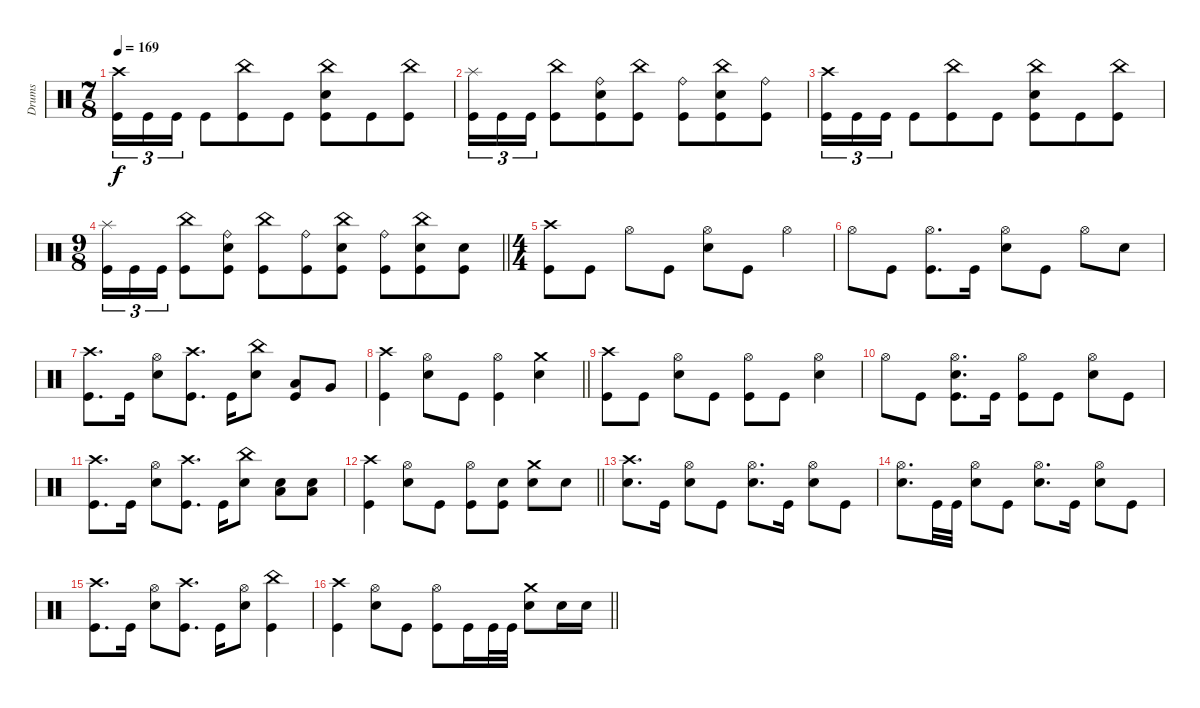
\track ("Drums" "Drums") {instrument percussion}
\staff
\articulation defaults
\ts (7 8)
\tempo 169
\clef neutral
\ks c
("Crash high (hit)" "Kick (hit)").16{tu (3 2) dy f} "Kick (hit)".16{tu (3 2)} "Kick (hit)".16{tu (3 2)} "Kick (hit)".8 ("China (hit)" "Kick (hit)").8 "Kick (hit)".8 ("China (hit)" "Electric Snare (hit)" "Kick (hit)").8 "Kick (hit)".8 ("China (hit)" "Kick (hit)").8 |
("Splash (hit)" "Kick (hit)").16{tu (3 2)} "Kick (hit)".16{tu (3 2)} "Kick (hit)".16{tu (3 2)} ("China (hit)" "Kick (hit)").8 ("Ride (bell)" "Electric Snare (hit)" "Kick (hit)").8 ("China (hit)" "Kick (hit)").8 ("Ride (bell)" "Kick (hit)").8 ("China (hit)" "Electric Snare (hit)" "Kick (hit)").8 ("Ride (bell)" "Kick (hit)").8 |
("Crash high (hit)" "Kick (hit)").16{tu (3 2)} "Kick (hit)".16{tu (3 2)} "Kick (hit)".16{tu (3 2)} "Kick (hit)".8 ("China (hit)" "Kick (hit)").8 "Kick (hit)".8 ("China (hit)" "Electric Snare (hit)" "Kick (hit)").8 "Kick (hit)".8 ("China (hit)" "Kick (hit)").8 |
\ts (9 8)
\barLineRight lightlight
("Splash (hit)" "Kick (hit)").16{tu (3 2)} "Kick (hit)".16{tu (3 2)} "Kick (hit)".16{tu (3 2)} ("China (hit)" "Kick (hit)").8 ("Ride (bell)" "Electric Snare (hit)" "Kick (hit)").8 ("China (hit)" "Kick (hit)").8 ("Ride (bell)" "Kick (hit)").8 ("China (hit)" "Electric Snare (hit)" "Kick (hit)").8 ("Ride (bell)" "Kick (hit)").8 ("China (hit)" "Electric Snare (hit)" "Kick (hit)").8 ("Electric Snare (hit)" "Kick (hit)").8 |
\ts (4 4)
\section ("" "")
("Crash high (hit)" "Kick (hit)").8 "Kick (hit)".8 "Hi-Hat (open)".8 "Kick (hit)".8 ("Hi-Hat (open)" "Electric Snare (hit)").8 "Kick (hit)".8 "Hi-Hat (open)".4 |
"Hi-Hat (open)".8 "Kick (hit)".8 ("Hi-Hat (open)" "Kick (hit)").8{d} "Kick (hit)".16 ("Hi-Hat (open)" "Electric Snare (hit)").8 "Kick (hit)".8 "Hi-Hat (open)".8 "Electric Snare (hit)".8 |
("Crash high (hit)" "Kick (hit)").8{d} "Kick (hit)".16 ("Hi-Hat (open)" "Electric Snare (hit)").8 ("Crash high (hit)" "Kick (hit)").8{d} "Kick (hit)".16 ("China (hit)" "Electric Snare (hit)").8 ("Low Tom (hit)" "Kick (hit)").8 "Very Low Tom (hit)".8 |
\barLineRight lightlight
("Crash high (hit)" "Kick (hit)").4 ("Hi-Hat (open)" "Electric Snare (hit)").8 "Kick (hit)".8 ("Hi-Hat (open)" "Kick (hit)").4 ("Crash medium (hit)" "Electric Snare (hit)").4 |
("Crash high (hit)" "Kick (hit)").8 "Kick (hit)".8 ("Hi-Hat (open)" "Electric Snare (hit)").8 "Kick (hit)".8 ("Hi-Hat (open)" "Kick (hit)").8 "Kick (hit)".8 ("Hi-Hat (open)" "Electric Snare (hit)").4 |
"Hi-Hat (open)".8 "Kick (hit)".8 ("Hi-Hat (open)" "Electric Snare (hit)" "Kick (hit)").8{d} "Kick (hit)".16 ("Hi-Hat (open)" "Kick (hit)").8 "Kick (hit)".8 ("Hi-Hat (open)" "Electric Snare (hit)").8 "Kick (hit)".8 |
("Crash high (hit)" "Kick (hit)").8{d} "Kick (hit)".16 ("Hi-Hat (open)" "Electric Snare (hit)").8 ("Crash high (hit)" "Kick (hit)").8{d} "Kick (hit)".16 ("China (hit)" "Electric Snare (hit)").8 ("Low Floor Tom (hit)" "Electric Snare (hit)").8 ("Low Floor Tom (hit)" "Electric Snare (hit)").8 |
\barLineRight lightlight
("Crash high (hit)" "Kick (hit)").4 ("Hi-Hat (open)" "Electric Snare (hit)").8 "Kick (hit)".8 ("Hi-Hat (open)" "Kick (hit)").8 ("Electric Snare (hit)" "Kick (hit)").8 ("Crash medium (hit)" "Electric Snare (hit)").8 "Electric Snare (hit)".8 |
("Crash high (hit)" "Electric Snare (hit)").8{d} "Kick (hit)".16 ("Hi-Hat (open)" "Electric Snare (hit)").8 "Kick (hit)".8 ("Hi-Hat (open)" "Electric Snare (hit)").8{d} "Kick (hit)".16 ("Hi-Hat (open)" "Electric Snare (hit)").8 "Kick (hit)".8 |
("Hi-Hat (open)" "Electric Snare (hit)").8{d} "Kick (hit)".32 "Kick (hit)".32 ("Hi-Hat (open)" "Electric Snare (hit)").8 "Kick (hit)".8 ("Hi-Hat (open)" "Electric Snare (hit)").8{d} "Kick (hit)".16 ("Hi-Hat (open)" "Electric Snare (hit)").8 "Kick (hit)".8 |
("Crash high (hit)" "Kick (hit)").8{d} "Kick (hit)".16 ("Hi-Hat (open)" "Electric Snare (hit)").8 ("Crash high (hit)" "Kick (hit)").8{d} "Kick (hit)".16 ("Hi-Hat (open)" "Electric Snare (hit)").8 ("China (hit)" "Kick (hit)").4 |
\barLineRight lightlight
("Crash high (hit)" "Kick (hit)").4 ("Hi-Hat (open)" "Electric Snare (hit)").8 "Kick (hit)".8 ("Hi-Hat (open)" "Kick (hit)").8 "Kick (hit)".16 "Kick (hit)".32 "Kick (hit)".32 ("Crash medium (hit)" "Electric Snare (hit)").8 "Electric Snare (hit)".16 "Electric Snare (hit)".16
